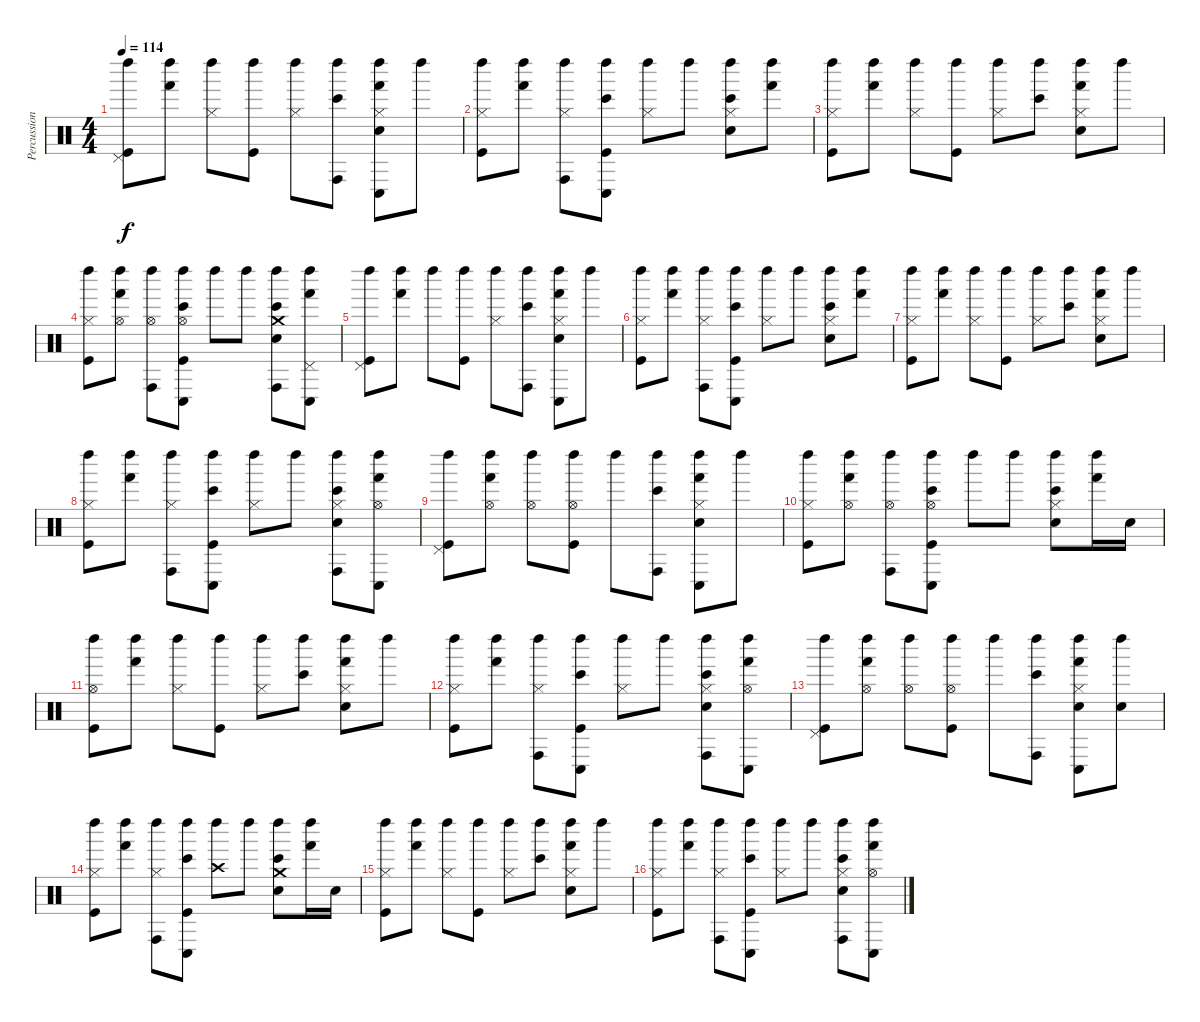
\track ("Percussion" "Percussion") {instrument percussion}
\staff {score}
\articulation defaults
\ts (4 4)
\tempo 114
\clef neutral
\ks c
("Left Maraca (hit)" "Pedal Hi-Hat (hit)" "Kick (hit)").8{dy f} ("Left Maraca (hit)" "Hand (hit)").8 ("Left Maraca (hit)" "Hi-Hat (closed)").8 ("Left Maraca (hit)" "Kick (hit)").8 ("Left Maraca (hit)" "Hi-Hat (closed)").8 ("Left Maraca (hit)" "Conga high (hit)" "Bongo High (hit)").8 ("Left Maraca (hit)" "Conga low (hit)" "Hand (hit)" "Hi-Hat (closed)" "Snare (hit) 2").8 "Left Maraca (hit)".8 |
("Left Maraca (hit)" "Hi-Hat (closed)" "Kick (hit)").8 ("Left Maraca (hit)" "Hand (hit)").8 ("Left Maraca (hit)" "Conga high (hit)" "Hi-Hat (closed)").8 ("Left Maraca (hit)" "Conga low (hit)" "Bongo High (hit)" "Kick (hit)").8 ("Left Maraca (hit)" "Hi-Hat (closed)").8 "Left Maraca (hit)".8 ("Left Maraca (hit)" "Bongo High (hit)" "Hi-Hat (closed)" "Snare (hit) 2").8 ("Left Maraca (hit)" "Hand (hit)").8 |
("Left Maraca (hit)" "Hi-Hat (closed)" "Kick (hit)").8 ("Left Maraca (hit)" "Hand (hit)").8 ("Left Maraca (hit)" "Hi-Hat (closed)").8 ("Left Maraca (hit)" "Kick (hit)").8 ("Left Maraca (hit)" "Hi-Hat (closed)").8 ("Left Maraca (hit)" "Bongo High (hit)").8 ("Left Maraca (hit)" "Hand (hit)" "Hi-Hat (closed)" "Snare (hit) 2").8 "Left Maraca (hit)".8 |
("Left Maraca (hit)" "Hi-Hat (closed)" "Kick (hit)").8 ("Left Maraca (hit)" "Hand (hit)" "Hi-Hat (open)").8 ("Left Maraca (hit)" "Conga high (hit)" "Hi-Hat (open)").8 ("Left Maraca (hit)" "Conga low (hit)" "Bongo High (hit)" "Hi-Hat (open)" "Kick (hit)").8 "Left Maraca (hit)".8 "Left Maraca (hit)".8 ("Left Maraca (hit)" "Conga high (hit)" "Bongo High (hit)" "Crash medium (hit)" "Snare (hit) 2").8 ("Left Maraca (hit)" "Conga low (hit)" "Hand (hit)" "Pedal Hi-Hat (hit)").8 |
("Left Maraca (hit)" "Pedal Hi-Hat (hit)" "Kick (hit)").8 ("Left Maraca (hit)" "Hand (hit)").8 "Left Maraca (hit)".8 ("Left Maraca (hit)" "Kick (hit)").8 ("Left Maraca (hit)" "Hi-Hat (closed)").8 ("Left Maraca (hit)" "Conga high (hit)" "Bongo High (hit)").8 ("Left Maraca (hit)" "Conga low (hit)" "Hand (hit)" "Hi-Hat (closed)" "Snare (hit) 2").8 "Left Maraca (hit)".8 |
("Left Maraca (hit)" "Hi-Hat (closed)" "Kick (hit)").8 ("Left Maraca (hit)" "Hand (hit)").8 ("Left Maraca (hit)" "Conga high (hit)" "Hi-Hat (closed)").8 ("Left Maraca (hit)" "Conga low (hit)" "Bongo High (hit)" "Kick (hit)").8 ("Left Maraca (hit)" "Hi-Hat (closed)").8 "Left Maraca (hit)".8 ("Left Maraca (hit)" "Bongo High (hit)" "Hi-Hat (closed)" "Snare (hit) 2").8 ("Left Maraca (hit)" "Hand (hit)").8 |
("Left Maraca (hit)" "Hi-Hat (closed)" "Kick (hit)").8 ("Left Maraca (hit)" "Hand (hit)").8 ("Left Maraca (hit)" "Hi-Hat (closed)").8 ("Left Maraca (hit)" "Kick (hit)").8 ("Left Maraca (hit)" "Hi-Hat (closed)").8 ("Left Maraca (hit)" "Bongo High (hit)").8 ("Left Maraca (hit)" "Hand (hit)" "Hi-Hat (closed)" "Snare (hit) 2").8 "Left Maraca (hit)".8 |
("Left Maraca (hit)" "Hi-Hat (closed)" "Kick (hit)").8 ("Left Maraca (hit)" "Hand (hit)").8 ("Left Maraca (hit)" "Conga high (hit)" "Hi-Hat (closed)").8 ("Left Maraca (hit)" "Conga low (hit)" "Bongo High (hit)" "Kick (hit)").8 ("Left Maraca (hit)" "Hi-Hat (closed)").8 "Left Maraca (hit)".8 ("Left Maraca (hit)" "Conga high (hit)" "Bongo High (hit)" "Hi-Hat (closed)" "Snare (hit) 2").8 ("Left Maraca (hit)" "Conga low (hit)" "Hand (hit)" "Hi-Hat (open)").8 |
("Left Maraca (hit)" "Pedal Hi-Hat (hit)" "Kick (hit)").8 ("Left Maraca (hit)" "Hand (hit)" "Hi-Hat (open)").8 ("Left Maraca (hit)" "Hi-Hat (open)").8 ("Left Maraca (hit)" "Hi-Hat (open)" "Kick (hit)").8 "Left Maraca (hit)".8 ("Left Maraca (hit)" "Conga high (hit)" "Bongo High (hit)").8 ("Left Maraca (hit)" "Conga low (hit)" "Hand (hit)" "Hi-Hat (closed)" "Snare (hit) 2").8 "Left Maraca (hit)".8 |
("Left Maraca (hit)" "Hi-Hat (closed)" "Kick (hit)").8 ("Left Maraca (hit)" "Hand (hit)" "Hi-Hat (open)").8 ("Left Maraca (hit)" "Conga high (hit)" "Hi-Hat (open)").8 ("Left Maraca (hit)" "Conga low (hit)" "Bongo High (hit)" "Hi-Hat (open)" "Kick (hit)").8 "Left Maraca (hit)".8 "Left Maraca (hit)".8 ("Left Maraca (hit)" "Bongo High (hit)" "Hi-Hat (closed)" "Snare (hit) 2").8 ("Left Maraca (hit)" "Hand (hit)").16 "Snare (hit) 2".16 |
("Left Maraca (hit)" "Hi-Hat (open)" "Kick (hit)").8 ("Left Maraca (hit)" "Hand (hit)").8 ("Left Maraca (hit)" "Hi-Hat (closed)").8 ("Left Maraca (hit)" "Kick (hit)").8 ("Left Maraca (hit)" "Hi-Hat (closed)").8 ("Left Maraca (hit)" "Bongo High (hit)").8 ("Left Maraca (hit)" "Hand (hit)" "Hi-Hat (closed)" "Snare (hit) 2").8 "Left Maraca (hit)".8 |
("Left Maraca (hit)" "Hi-Hat (closed)" "Kick (hit)").8 ("Left Maraca (hit)" "Hand (hit)").8 ("Left Maraca (hit)" "Conga high (hit)" "Hi-Hat (closed)").8 ("Left Maraca (hit)" "Conga low (hit)" "Bongo High (hit)" "Kick (hit)").8 ("Left Maraca (hit)" "Hi-Hat (closed)").8 "Left Maraca (hit)".8 ("Left Maraca (hit)" "Conga high (hit)" "Bongo High (hit)" "Hi-Hat (closed)" "Snare (hit) 2").8 ("Left Maraca (hit)" "Conga low (hit)" "Hand (hit)" "Hi-Hat (open)").8 |
("Left Maraca (hit)" "Pedal Hi-Hat (hit)" "Kick (hit)").8 ("Left Maraca (hit)" "Hand (hit)" "Hi-Hat (open)").8 ("Left Maraca (hit)" "Hi-Hat (open)").8 ("Left Maraca (hit)" "Hi-Hat (open)" "Kick (hit)").8 "Left Maraca (hit)".8 ("Left Maraca (hit)" "Conga high (hit)" "Bongo High (hit)").8 ("Left Maraca (hit)" "Conga low (hit)" "Hand (hit)" "Hi-Hat (closed)" "Snare (hit) 2").8 ("Left Maraca (hit)" "Snare (hit) 2").8 |
("Left Maraca (hit)" "Hi-Hat (closed)" "Kick (hit)").8 ("Left Maraca (hit)" "Hand (hit)").8 ("Left Maraca (hit)" "Conga high (hit)" "Hi-Hat (closed)").8 ("Left Maraca (hit)" "Conga low (hit)" "Bongo High (hit)" "Kick (hit)").8 ("Left Maraca (hit)" "Crash high (hit)").8 "Left Maraca (hit)".8 ("Left Maraca (hit)" "Bongo High (hit)" "Crash medium (hit)" "Snare (hit) 2").8 ("Left Maraca (hit)" "Hand (hit)").16 "Snare (hit) 2".16 |
("Left Maraca (hit)" "Hi-Hat (closed)" "Kick (hit)").8 ("Left Maraca (hit)" "Hand (hit)").8 ("Left Maraca (hit)" "Hi-Hat (closed)").8 ("Left Maraca (hit)" "Kick (hit)").8 ("Left Maraca (hit)" "Hi-Hat (closed)").8 ("Left Maraca (hit)" "Bongo High (hit)").8 ("Left Maraca (hit)" "Hand (hit)" "Hi-Hat (closed)" "Snare (hit) 2").8 "Left Maraca (hit)".8 |
("Left Maraca (hit)" "Hi-Hat (closed)" "Kick (hit)").8 ("Left Maraca (hit)" "Hand (hit)").8 ("Left Maraca (hit)" "Conga high (hit)" "Hi-Hat (closed)").8 ("Left Maraca (hit)" "Conga low (hit)" "Bongo High (hit)" "Kick (hit)").8 ("Left Maraca (hit)" "Hi-Hat (closed)").8 "Left Maraca (hit)".8 ("Left Maraca (hit)" "Conga high (hit)" "Bongo High (hit)" "Hi-Hat (closed)" "Snare (hit) 2").8 ("Left Maraca (hit)" "Conga low (hit)" "Hand (hit)" "Hi-Hat (open)").8
